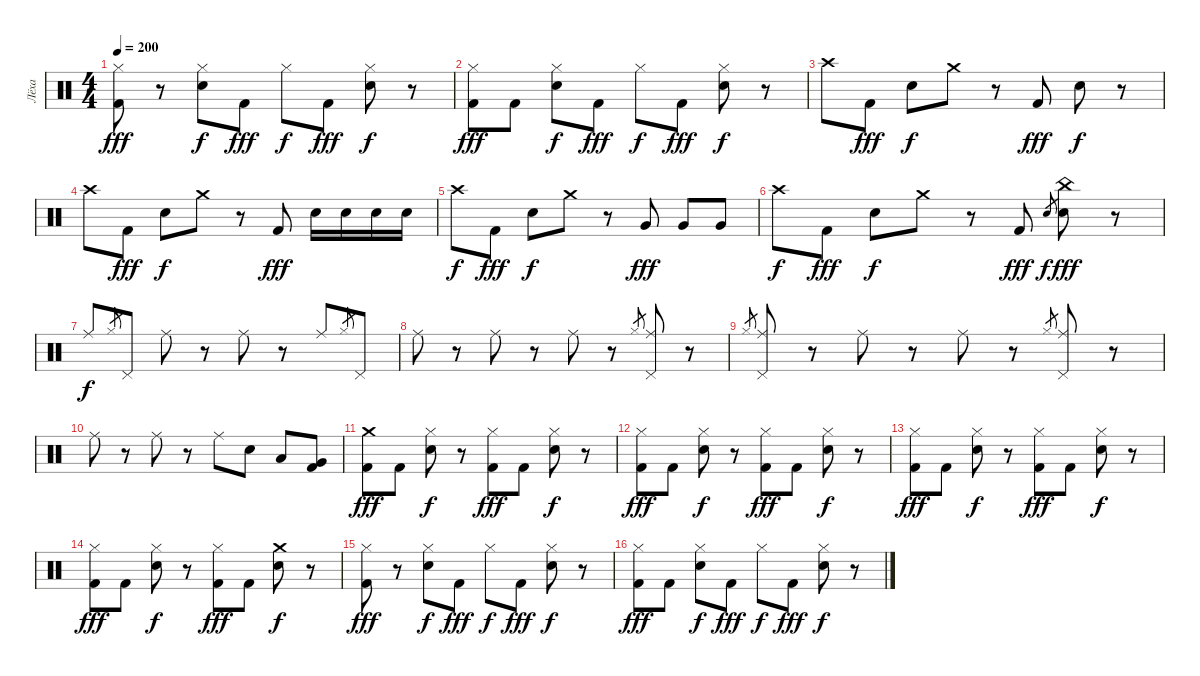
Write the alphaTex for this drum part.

\track ("Лёха" "Лёха") {instrument percussion}
\staff {score}
\articulation defaults
\ts (4 4)
\tempo 200
\clef neutral
\ks c
("Hi-Hat (closed)" "Kick (hit) 2").8{dy fff} r.8 ("Hi-Hat (closed)" "Electric Snare (hit)").8{dy f} "Kick (hit) 2".8{dy fff} "Hi-Hat (closed)".8{dy f} "Kick (hit) 2".8{dy fff} ("Hi-Hat (closed)" "Electric Snare (hit)").8{dy f} r.8 |
("Hi-Hat (closed)" "Kick (hit) 2").8{dy fff} "Kick (hit) 2".8 ("Hi-Hat (closed)" "Electric Snare (hit)").8{dy f} "Kick (hit) 2".8{dy fff} "Hi-Hat (closed)".8{dy f} "Kick (hit) 2".8{dy fff} ("Hi-Hat (closed)" "Electric Snare (hit)").8{dy f} r.8 |
"Crash high (hit)".8 "Kick (hit) 2".8{dy fff} "Electric Snare (hit)".8{dy f} "Crash medium (hit)".8 r.8 "Kick (hit) 2".8{dy fff} "Electric Snare (hit)".8{dy f} r.8 |
"Crash high (hit)".8 "Kick (hit) 2".8{dy fff} "Electric Snare (hit)".8{dy f} "Crash medium (hit)".8 r.8 "Kick (hit) 2".8{dy fff} "Electric Snare (hit)".16 "Electric Snare (hit)".16 "Electric Snare (hit)".16 "Electric Snare (hit)".16 |
"Crash high (hit)".8{dy f} "Kick (hit) 2".8{dy fff} "Electric Snare (hit)".8{dy f} "Crash medium (hit)".8 r.8 "Very Low Tom (hit)".8{dy fff} "Very Low Tom (hit)".8 "Very Low Tom (hit)".8 |
"Crash high (hit)".8{dy f} "Kick (hit) 2".8{dy fff} "Electric Snare (hit)".8{dy f} "Crash medium (hit)".8 r.8 "Kick (hit) 2".8{dy fff} "Electric Snare (hit)".8{gr dy f} ("China (hit)" "Electric Snare (hit)").8{dy fff} r.8 |
"Ride (middle)".8{dy f} "Hi-Hat (closed)".8{gr} "Pedal Hi-Hat (hit)".8 "Ride (middle)".8 r.8 "Ride (middle)".8 r.8 "Ride (middle)".8 "Hi-Hat (closed)".8{gr} "Pedal Hi-Hat (hit)".8 |
"Ride (middle)".8 r.8 "Ride (middle)".8 r.8 "Ride (middle)".8 r.8 "Hi-Hat (closed)".8{gr} ("Ride (middle)" "Pedal Hi-Hat (hit)").8 r.8 |
"Hi-Hat (closed)".8{gr} ("Ride (middle)" "Pedal Hi-Hat (hit)").8 r.8 "Ride (middle)".8 r.8 "Ride (middle)".8 r.8 "Hi-Hat (closed)".8{gr} ("Ride (middle)" "Pedal Hi-Hat (hit)").8 r.8 |
"Ride (middle)".8 r.8 "Ride (middle)".8 r.8 "Ride (middle)".8 "Electric Snare (hit)".8 "Low Tom (hit)".8 ("Very Low Tom (hit)" "Kick (hit) 2").8 |
("Crash medium (hit)" "Kick (hit) 2").8{dy fff} "Kick (hit) 2".8 ("Hi-Hat (closed)" "Electric Snare (hit)").8{dy f} r.8 ("Hi-Hat (closed)" "Kick (hit) 2").8{dy fff} "Kick (hit) 2".8 ("Hi-Hat (closed)" "Electric Snare (hit)").8{dy f} r.8 |
("Hi-Hat (closed)" "Kick (hit) 2").8{dy fff} "Kick (hit) 2".8 ("Hi-Hat (closed)" "Electric Snare (hit)").8{dy f} r.8 ("Hi-Hat (closed)" "Kick (hit) 2").8{dy fff} "Kick (hit) 2".8 ("Hi-Hat (closed)" "Electric Snare (hit)").8{dy f} r.8 |
("Hi-Hat (closed)" "Kick (hit) 2").8{dy fff} "Kick (hit) 2".8 ("Hi-Hat (closed)" "Electric Snare (hit)").8{dy f} r.8 ("Hi-Hat (closed)" "Kick (hit) 2").8{dy fff} "Kick (hit) 2".8 ("Hi-Hat (closed)" "Electric Snare (hit)").8{dy f} r.8 |
("Hi-Hat (closed)" "Kick (hit) 2").8{dy fff} "Kick (hit) 2".8 ("Hi-Hat (closed)" "Electric Snare (hit)").8{dy f} r.8 ("Hi-Hat (closed)" "Kick (hit) 2").8{dy fff} "Kick (hit) 2".8 ("Crash medium (hit)" "Electric Snare (hit)").8{dy f} r.8 |
("Hi-Hat (closed)" "Kick (hit) 2").8{dy fff} r.8 ("Hi-Hat (closed)" "Electric Snare (hit)").8{dy f} "Kick (hit) 2".8{dy fff} "Hi-Hat (closed)".8{dy f} "Kick (hit) 2".8{dy fff} ("Hi-Hat (closed)" "Electric Snare (hit)").8{dy f} r.8 |
("Hi-Hat (closed)" "Kick (hit) 2").8{dy fff} "Kick (hit) 2".8 ("Hi-Hat (closed)" "Electric Snare (hit)").8{dy f} "Kick (hit) 2".8{dy fff} "Hi-Hat (closed)".8{dy f} "Kick (hit) 2".8{dy fff} ("Hi-Hat (closed)" "Electric Snare (hit)").8{dy f} r.8
